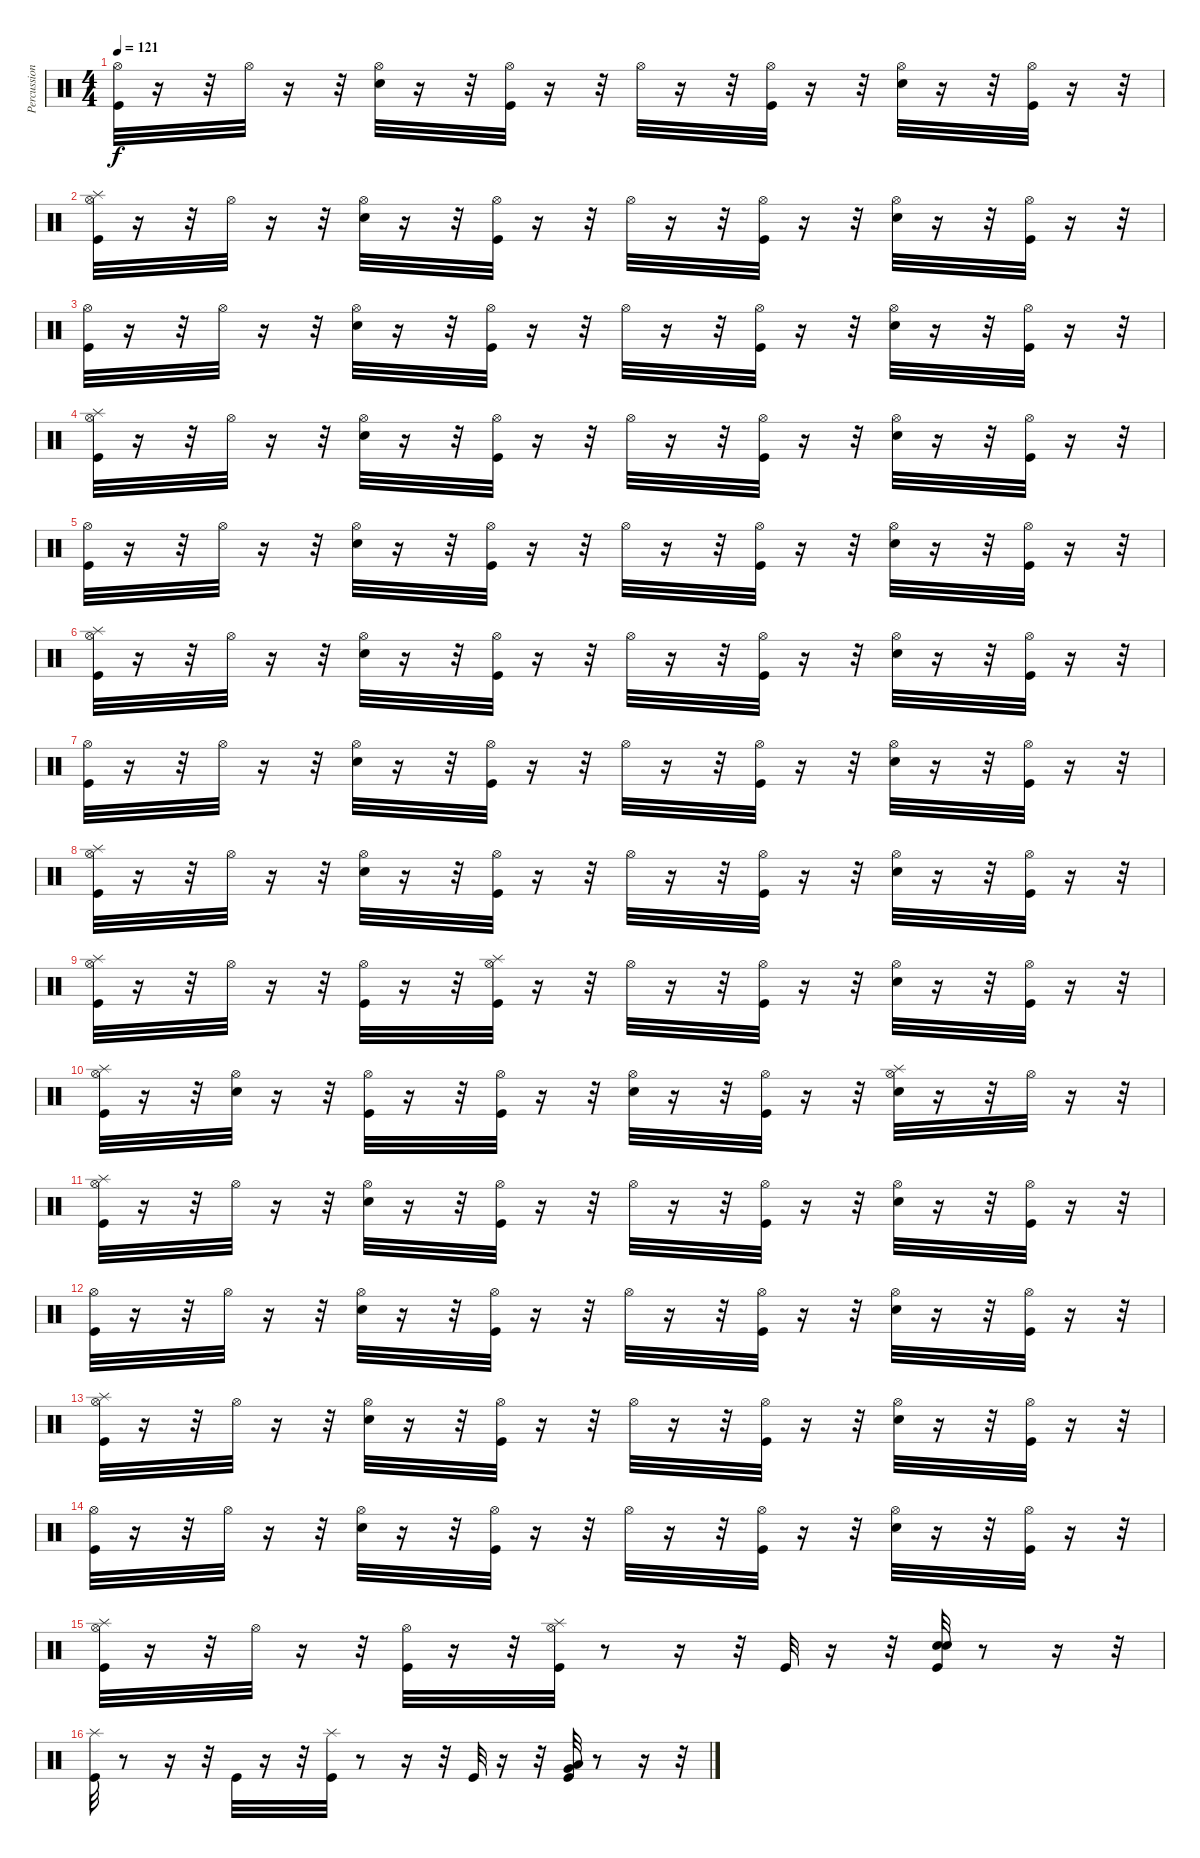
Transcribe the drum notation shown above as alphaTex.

\track ("Percussion" "Percussion") {instrument percussion}
\staff {score}
\articulation defaults
\ts (4 4)
\tempo 121
\clef neutral
\ks c
("Hi-Hat (open)" "Kick (hit)").32{dy f} r.16 r.32 "Hi-Hat (open)".32 r.16 r.32 ("Hi-Hat (open)" "Snare (hit) 2").32 r.16 r.32 ("Hi-Hat (open)" "Kick (hit)").32 r.16 r.32 "Hi-Hat (open)".32 r.16 r.32 ("Hi-Hat (open)" "Kick (hit)").32 r.16 r.32 ("Hi-Hat (open)" "Snare (hit) 2").32 r.16 r.32 ("Kick (hit)" "Hi-Hat (open)").32 r.16 r.32 |
("Hi-Hat (open)" "Splash (hit)" "Kick (hit)").32 r.16 r.32 "Hi-Hat (open)".32 r.16 r.32 ("Hi-Hat (open)" "Snare (hit) 2").32 r.16 r.32 ("Hi-Hat (open)" "Kick (hit)").32 r.16 r.32 "Hi-Hat (open)".32 r.16 r.32 ("Hi-Hat (open)" "Kick (hit)").32 r.16 r.32 ("Hi-Hat (open)" "Snare (hit) 2").32 r.16 r.32 ("Hi-Hat (open)" "Kick (hit)").32 r.16 r.32 |
("Hi-Hat (open)" "Kick (hit)").32 r.16 r.32 "Hi-Hat (open)".32 r.16 r.32 ("Hi-Hat (open)" "Snare (hit) 2").32 r.16 r.32 ("Hi-Hat (open)" "Kick (hit)").32 r.16 r.32 "Hi-Hat (open)".32 r.16 r.32 ("Hi-Hat (open)" "Kick (hit)").32 r.16 r.32 ("Hi-Hat (open)" "Snare (hit) 2").32 r.16 r.32 ("Kick (hit)" "Hi-Hat (open)").32 r.16 r.32 |
("Hi-Hat (open)" "Splash (hit)" "Kick (hit)").32 r.16 r.32 "Hi-Hat (open)".32 r.16 r.32 ("Hi-Hat (open)" "Snare (hit) 2").32 r.16 r.32 ("Hi-Hat (open)" "Kick (hit)").32 r.16 r.32 "Hi-Hat (open)".32 r.16 r.32 ("Hi-Hat (open)" "Kick (hit)").32 r.16 r.32 ("Hi-Hat (open)" "Snare (hit) 2").32 r.16 r.32 ("Hi-Hat (open)" "Kick (hit)").32 r.16 r.32 |
("Hi-Hat (open)" "Kick (hit)").32 r.16 r.32 "Hi-Hat (open)".32 r.16 r.32 ("Hi-Hat (open)" "Snare (hit) 2").32 r.16 r.32 ("Hi-Hat (open)" "Kick (hit)").32 r.16 r.32 "Hi-Hat (open)".32 r.16 r.32 ("Hi-Hat (open)" "Kick (hit)").32 r.16 r.32 ("Hi-Hat (open)" "Snare (hit) 2").32 r.16 r.32 ("Kick (hit)" "Hi-Hat (open)").32 r.16 r.32 |
("Hi-Hat (open)" "Splash (hit)" "Kick (hit)").32 r.16 r.32 "Hi-Hat (open)".32 r.16 r.32 ("Hi-Hat (open)" "Snare (hit) 2").32 r.16 r.32 ("Hi-Hat (open)" "Kick (hit)").32 r.16 r.32 "Hi-Hat (open)".32 r.16 r.32 ("Hi-Hat (open)" "Kick (hit)").32 r.16 r.32 ("Hi-Hat (open)" "Snare (hit) 2").32 r.16 r.32 ("Hi-Hat (open)" "Kick (hit)").32 r.16 r.32 |
("Hi-Hat (open)" "Kick (hit)").32 r.16 r.32 "Hi-Hat (open)".32 r.16 r.32 ("Hi-Hat (open)" "Snare (hit) 2").32 r.16 r.32 ("Hi-Hat (open)" "Kick (hit)").32 r.16 r.32 "Hi-Hat (open)".32 r.16 r.32 ("Hi-Hat (open)" "Kick (hit)").32 r.16 r.32 ("Hi-Hat (open)" "Snare (hit) 2").32 r.16 r.32 ("Kick (hit)" "Hi-Hat (open)").32 r.16 r.32 |
("Hi-Hat (open)" "Splash (hit)" "Kick (hit)").32 r.16 r.32 "Hi-Hat (open)".32 r.16 r.32 ("Hi-Hat (open)" "Snare (hit) 2").32 r.16 r.32 ("Hi-Hat (open)" "Kick (hit)").32 r.16 r.32 "Hi-Hat (open)".32 r.16 r.32 ("Hi-Hat (open)" "Kick (hit)").32 r.16 r.32 ("Hi-Hat (open)" "Snare (hit) 2").32 r.16 r.32 ("Hi-Hat (open)" "Kick (hit)").32 r.16 r.32 |
("Hi-Hat (open)" "Splash (hit)" "Kick (hit)").32 r.16 r.32 "Hi-Hat (open)".32 r.16 r.32 ("Hi-Hat (open)" "Kick (hit)").32 r.16 r.32 ("Hi-Hat (open)" "Splash (hit)" "Kick (hit)").32 r.16 r.32 "Hi-Hat (open)".32 r.16 r.32 ("Hi-Hat (open)" "Kick (hit)").32 r.16 r.32 ("Hi-Hat (open)" "Snare (hit) 2").32 r.16 r.32 ("Kick (hit)" "Hi-Hat (open)").32 r.16 r.32 |
("Splash (hit)" "Kick (hit)" "Hi-Hat (open)").32 r.16 r.32 ("Snare (hit) 2" "Hi-Hat (open)").32 r.16 r.32 ("Kick (hit)" "Hi-Hat (open)").32 r.16 r.32 ("Kick (hit)" "Hi-Hat (open)").32 r.16 r.32 ("Snare (hit) 2" "Hi-Hat (open)").32 r.16 r.32 ("Kick (hit)" "Hi-Hat (open)").32 r.16 r.32 ("Hi-Hat (open)" "Splash (hit)" "Snare (hit) 2").32 r.16 r.32 "Hi-Hat (open)".32 r.16 r.32 |
("Hi-Hat (open)" "Splash (hit)" "Kick (hit)").32 r.16 r.32 "Hi-Hat (open)".32 r.16 r.32 ("Hi-Hat (open)" "Snare (hit) 2").32 r.16 r.32 ("Hi-Hat (open)" "Kick (hit)").32 r.16 r.32 "Hi-Hat (open)".32 r.16 r.32 ("Hi-Hat (open)" "Kick (hit)").32 r.16 r.32 ("Hi-Hat (open)" "Snare (hit) 2").32 r.16 r.32 ("Hi-Hat (open)" "Kick (hit)").32 r.16 r.32 |
("Hi-Hat (open)" "Kick (hit)").32 r.16 r.32 "Hi-Hat (open)".32 r.16 r.32 ("Hi-Hat (open)" "Snare (hit) 2").32 r.16 r.32 ("Hi-Hat (open)" "Kick (hit)").32 r.16 r.32 "Hi-Hat (open)".32 r.16 r.32 ("Hi-Hat (open)" "Kick (hit)").32 r.16 r.32 ("Hi-Hat (open)" "Snare (hit) 2").32 r.16 r.32 ("Kick (hit)" "Hi-Hat (open)").32 r.16 r.32 |
("Hi-Hat (open)" "Splash (hit)" "Kick (hit)").32 r.16 r.32 "Hi-Hat (open)".32 r.16 r.32 ("Hi-Hat (open)" "Snare (hit) 2").32 r.16 r.32 ("Hi-Hat (open)" "Kick (hit)").32 r.16 r.32 "Hi-Hat (open)".32 r.16 r.32 ("Hi-Hat (open)" "Kick (hit)").32 r.16 r.32 ("Hi-Hat (open)" "Snare (hit) 2").32 r.16 r.32 ("Hi-Hat (open)" "Kick (hit)").32 r.16 r.32 |
("Hi-Hat (open)" "Kick (hit)").32 r.16 r.32 "Hi-Hat (open)".32 r.16 r.32 ("Hi-Hat (open)" "Snare (hit) 2").32 r.16 r.32 ("Hi-Hat (open)" "Kick (hit)").32 r.16 r.32 "Hi-Hat (open)".32 r.16 r.32 ("Hi-Hat (open)" "Kick (hit)").32 r.16 r.32 ("Hi-Hat (open)" "Snare (hit) 2").32 r.16 r.32 ("Kick (hit)" "Hi-Hat (open)").32 r.16 r.32 |
("Hi-Hat (open)" "Kick (hit)" "Splash (hit)").32 r.16 r.32 "Hi-Hat (open)".32 r.16 r.32 ("Hi-Hat (open)" "Kick (hit)").32 r.16 r.32 ("Hi-Hat (open)" "Splash (hit)" "Kick (hit)").32 r.8 r.16 r.32 "Kick (hit)".32 r.16 r.32 ("Kick (hit)" "Electric Snare (hit)" "Snare (hit) 2").32 r.8 r.16 r.32 |
("Kick (hit)" "Splash (hit)").32 r.8 r.16 r.32 "Kick (hit)".32 r.16 r.32 ("Splash (hit)" "Kick (hit)").32 r.8 r.16 r.32 "Kick (hit)".32 r.16 r.32 ("Very Low Tom (hit)" "Kick (hit)" "Low Floor Tom (hit)").32 r.8 r.16 r.32
